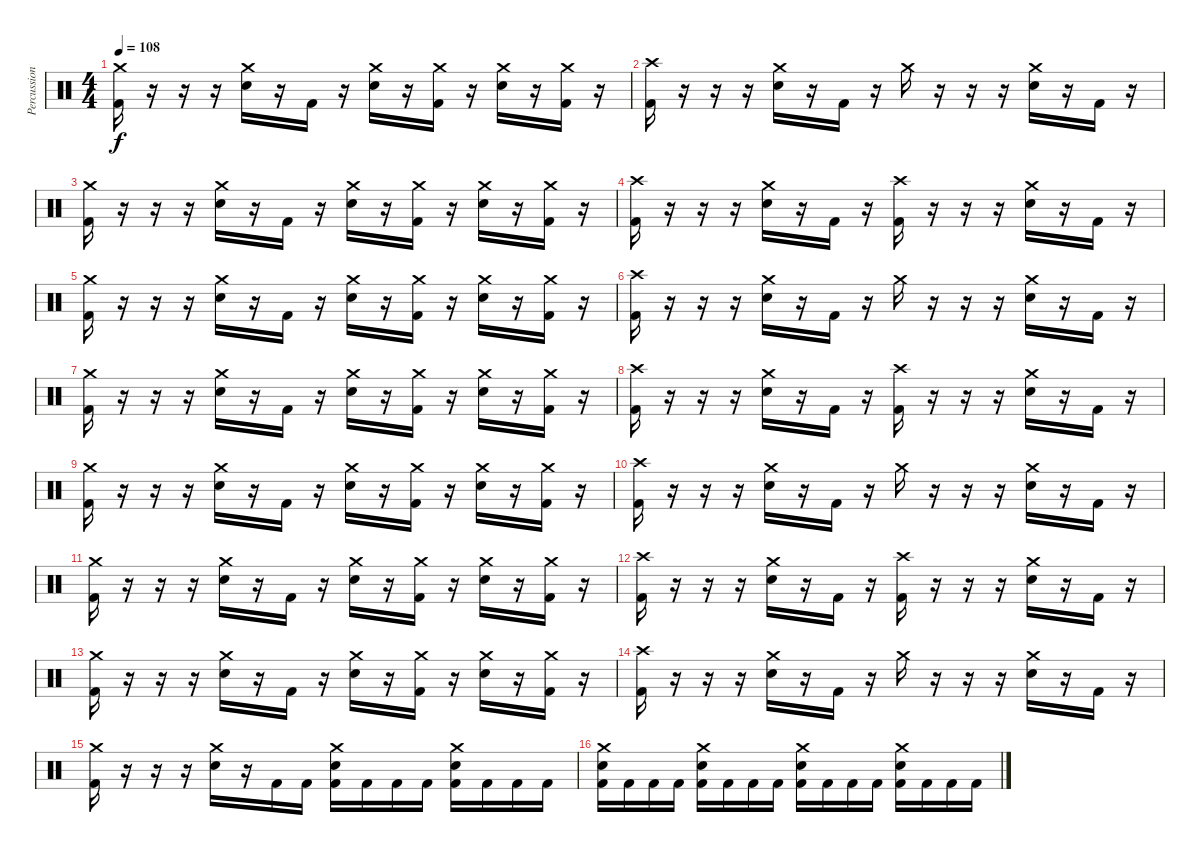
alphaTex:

\track ("Percussion" "Percussion") {instrument percussion}
\staff {score}
\articulation defaults
\ts (4 4)
\tempo 108
\clef neutral
\ks c
("Crash medium (hit)" "Kick (hit) 2").16{dy f} r.16 r.16 r.16 ("Crash medium (hit)" "Electric Snare (hit)").16 r.16 "Kick (hit) 2".16 r.16 ("Crash medium (hit)" "Electric Snare (hit)").16 r.16 ("Crash medium (hit)" "Kick (hit) 2").16 r.16 ("Crash medium (hit)" "Electric Snare (hit)").16 r.16 ("Crash medium (hit)" "Kick (hit) 2").16 r.16 |
("Crash high (hit)" "Kick (hit) 2").16 r.16 r.16 r.16 ("Crash medium (hit)" "Electric Snare (hit)").16 r.16 "Kick (hit) 2".16 r.16 "Crash medium (hit)".16 r.16 r.16 r.16 ("Crash medium (hit)" "Electric Snare (hit)").16 r.16 "Kick (hit) 2".16 r.16 |
("Crash medium (hit)" "Kick (hit) 2").16 r.16 r.16 r.16 ("Crash medium (hit)" "Electric Snare (hit)").16 r.16 "Kick (hit) 2".16 r.16 ("Crash medium (hit)" "Electric Snare (hit)").16 r.16 ("Crash medium (hit)" "Kick (hit) 2").16 r.16 ("Crash medium (hit)" "Electric Snare (hit)").16 r.16 ("Crash medium (hit)" "Kick (hit) 2").16 r.16 |
("Crash high (hit)" "Kick (hit) 2").16 r.16 r.16 r.16 ("Crash medium (hit)" "Electric Snare (hit)").16 r.16 "Kick (hit) 2".16 r.16 ("Crash high (hit)" "Kick (hit) 2").16 r.16 r.16 r.16 ("Crash medium (hit)" "Electric Snare (hit)").16 r.16 "Kick (hit) 2".16 r.16 |
("Crash medium (hit)" "Kick (hit) 2").16 r.16 r.16 r.16 ("Crash medium (hit)" "Electric Snare (hit)").16 r.16 "Kick (hit) 2".16 r.16 ("Crash medium (hit)" "Electric Snare (hit)").16 r.16 ("Crash medium (hit)" "Kick (hit) 2").16 r.16 ("Crash medium (hit)" "Electric Snare (hit)").16 r.16 ("Crash medium (hit)" "Kick (hit) 2").16 r.16 |
("Crash high (hit)" "Kick (hit) 2").16 r.16 r.16 r.16 ("Crash medium (hit)" "Electric Snare (hit)").16 r.16 "Kick (hit) 2".16 r.16 "Crash medium (hit)".16 r.16 r.16 r.16 ("Crash medium (hit)" "Electric Snare (hit)").16 r.16 "Kick (hit) 2".16 r.16 |
("Crash medium (hit)" "Kick (hit) 2").16 r.16 r.16 r.16 ("Crash medium (hit)" "Electric Snare (hit)").16 r.16 "Kick (hit) 2".16 r.16 ("Crash medium (hit)" "Electric Snare (hit)").16 r.16 ("Crash medium (hit)" "Kick (hit) 2").16 r.16 ("Crash medium (hit)" "Electric Snare (hit)").16 r.16 ("Crash medium (hit)" "Kick (hit) 2").16 r.16 |
("Crash high (hit)" "Kick (hit) 2").16 r.16 r.16 r.16 ("Crash medium (hit)" "Electric Snare (hit)").16 r.16 "Kick (hit) 2".16 r.16 ("Crash high (hit)" "Kick (hit) 2").16 r.16 r.16 r.16 ("Crash medium (hit)" "Electric Snare (hit)").16 r.16 "Kick (hit) 2".16 r.16 |
("Crash medium (hit)" "Kick (hit) 2").16 r.16 r.16 r.16 ("Crash medium (hit)" "Electric Snare (hit)").16 r.16 "Kick (hit) 2".16 r.16 ("Crash medium (hit)" "Electric Snare (hit)").16 r.16 ("Crash medium (hit)" "Kick (hit) 2").16 r.16 ("Crash medium (hit)" "Electric Snare (hit)").16 r.16 ("Crash medium (hit)" "Kick (hit) 2").16 r.16 |
("Crash high (hit)" "Kick (hit) 2").16 r.16 r.16 r.16 ("Crash medium (hit)" "Electric Snare (hit)").16 r.16 "Kick (hit) 2".16 r.16 "Crash medium (hit)".16 r.16 r.16 r.16 ("Crash medium (hit)" "Electric Snare (hit)").16 r.16 "Kick (hit) 2".16 r.16 |
("Crash medium (hit)" "Kick (hit) 2").16 r.16 r.16 r.16 ("Crash medium (hit)" "Electric Snare (hit)").16 r.16 "Kick (hit) 2".16 r.16 ("Crash medium (hit)" "Electric Snare (hit)").16 r.16 ("Crash medium (hit)" "Kick (hit) 2").16 r.16 ("Crash medium (hit)" "Electric Snare (hit)").16 r.16 ("Crash medium (hit)" "Kick (hit) 2").16 r.16 |
("Crash high (hit)" "Kick (hit) 2").16 r.16 r.16 r.16 ("Crash medium (hit)" "Electric Snare (hit)").16 r.16 "Kick (hit) 2".16 r.16 ("Crash high (hit)" "Kick (hit) 2").16 r.16 r.16 r.16 ("Crash medium (hit)" "Electric Snare (hit)").16 r.16 "Kick (hit) 2".16 r.16 |
("Crash medium (hit)" "Kick (hit) 2").16 r.16 r.16 r.16 ("Crash medium (hit)" "Electric Snare (hit)").16 r.16 "Kick (hit) 2".16 r.16 ("Crash medium (hit)" "Electric Snare (hit)").16 r.16 ("Crash medium (hit)" "Kick (hit) 2").16 r.16 ("Crash medium (hit)" "Electric Snare (hit)").16 r.16 ("Crash medium (hit)" "Kick (hit) 2").16 r.16 |
("Crash high (hit)" "Kick (hit) 2").16 r.16 r.16 r.16 ("Crash medium (hit)" "Electric Snare (hit)").16 r.16 "Kick (hit) 2".16 r.16 "Crash medium (hit)".16 r.16 r.16 r.16 ("Crash medium (hit)" "Electric Snare (hit)").16 r.16 "Kick (hit) 2".16 r.16 |
("Crash medium (hit)" "Kick (hit) 2").16 r.16 r.16 r.16 ("Crash medium (hit)" "Electric Snare (hit)").16 r.16 "Kick (hit) 2".16 "Kick (hit) 2".16 ("Crash medium (hit)" "Electric Snare (hit)" "Kick (hit) 2").16 "Kick (hit) 2".16 "Kick (hit) 2".16 "Kick (hit) 2".16 ("Crash medium (hit)" "Electric Snare (hit)" "Kick (hit) 2").16 "Kick (hit) 2".16 "Kick (hit) 2".16 "Kick (hit) 2".16 |
("Crash medium (hit)" "Electric Snare (hit)" "Kick (hit) 2").16 "Kick (hit) 2".16 "Kick (hit) 2".16 "Kick (hit) 2".16 ("Crash medium (hit)" "Electric Snare (hit)" "Kick (hit) 2").16 "Kick (hit) 2".16 "Kick (hit) 2".16 "Kick (hit) 2".16 ("Crash medium (hit)" "Electric Snare (hit)" "Kick (hit) 2").16 "Kick (hit) 2".16 "Kick (hit) 2".16 "Kick (hit) 2".16 ("Crash medium (hit)" "Electric Snare (hit)" "Kick (hit) 2").16 "Kick (hit) 2".16 "Kick (hit) 2".16 "Kick (hit) 2".16
